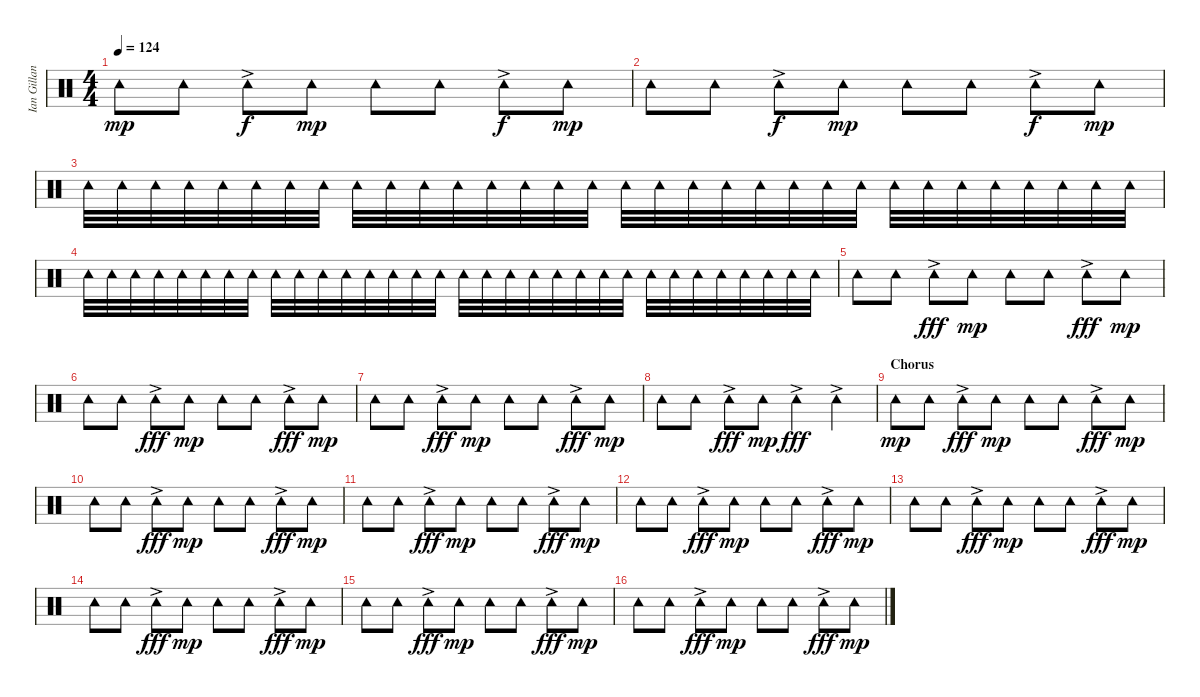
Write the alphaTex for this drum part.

\track ("Ian Gillan (percussions)" "Ian Gillan") {instrument percussion}
\staff {score}
\articulation defaults
\ts (4 4)
\tempo 124
\clef neutral
\ks c "Tambourine (hit)".8{dy mp} "Tambourine (hit)".8 "Tambourine (hit)"{ac}.8{dy f} "Tambourine (hit)".8{dy mp} "Tambourine (hit)".8 "Tambourine (hit)".8 "Tambourine (hit)"{ac}.8{dy f} "Tambourine (hit)".8{dy mp}
|
"Tambourine (hit)".8 "Tambourine (hit)".8 "Tambourine (hit)"{ac}.8{dy f} "Tambourine (hit)".8{dy mp} "Tambourine (hit)".8 "Tambourine (hit)".8 "Tambourine (hit)"{ac}.8{dy f} "Tambourine (hit)".8{dy mp} |
"Tambourine (hit)".32 "Tambourine (hit)".32 "Tambourine (hit)".32 "Tambourine (hit)".32 "Tambourine (hit)".32 "Tambourine (hit)".32 "Tambourine (hit)".32 "Tambourine (hit)".32 "Tambourine (hit)".32 "Tambourine (hit)".32 "Tambourine (hit)".32 "Tambourine (hit)".32 "Tambourine (hit)".32 "Tambourine (hit)".32 "Tambourine (hit)".32 "Tambourine (hit)".32 "Tambourine (hit)".32 "Tambourine (hit)".32 "Tambourine (hit)".32 "Tambourine (hit)".32 "Tambourine (hit)".32 "Tambourine (hit)".32 "Tambourine (hit)".32 "Tambourine (hit)".32 "Tambourine (hit)".32 "Tambourine (hit)".32 "Tambourine (hit)".32 "Tambourine (hit)".32 "Tambourine (hit)".32 "Tambourine (hit)".32 "Tambourine (hit)".32 "Tambourine (hit)".32 |
"Tambourine (hit)".32 "Tambourine (hit)".32 "Tambourine (hit)".32 "Tambourine (hit)".32 "Tambourine (hit)".32 "Tambourine (hit)".32 "Tambourine (hit)".32 "Tambourine (hit)".32 "Tambourine (hit)".32 "Tambourine (hit)".32 "Tambourine (hit)".32 "Tambourine (hit)".32 "Tambourine (hit)".32 "Tambourine (hit)".32 "Tambourine (hit)".32 "Tambourine (hit)".32 "Tambourine (hit)".32 "Tambourine (hit)".32 "Tambourine (hit)".32 "Tambourine (hit)".32 "Tambourine (hit)".32 "Tambourine (hit)".32 "Tambourine (hit)".32 "Tambourine (hit)".32 "Tambourine (hit)".32 "Tambourine (hit)".32 "Tambourine (hit)".32 "Tambourine (hit)".32 "Tambourine (hit)".32 "Tambourine (hit)".32 "Tambourine (hit)".32 "Tambourine (hit)".32 |
"Tambourine (hit)".8 "Tambourine (hit)".8 "Tambourine (hit)"{ac}.8{dy fff} "Tambourine (hit)".8{dy mp} "Tambourine (hit)".8 "Tambourine (hit)".8 "Tambourine (hit)"{ac}.8{dy fff} "Tambourine (hit)".8{dy mp} |
"Tambourine (hit)".8 "Tambourine (hit)".8 "Tambourine (hit)"{ac}.8{dy fff} "Tambourine (hit)".8{dy mp} "Tambourine (hit)".8 "Tambourine (hit)".8 "Tambourine (hit)"{ac}.8{dy fff} "Tambourine (hit)".8{dy mp} |
"Tambourine (hit)".8 "Tambourine (hit)".8 "Tambourine (hit)"{ac}.8{dy fff} "Tambourine (hit)".8{dy mp} "Tambourine (hit)".8 "Tambourine (hit)".8 "Tambourine (hit)"{ac}.8{dy fff} "Tambourine (hit)".8{dy mp} |
"Tambourine (hit)".8 "Tambourine (hit)".8 "Tambourine (hit)"{ac}.8{dy fff} "Tambourine (hit)".8{dy mp} "Tambourine (hit)"{ac}.4{dy fff} "Tambourine (hit)"{ac}.4 |
\section ("" "Chorus")
"Tambourine (hit)".8{dy mp} "Tambourine (hit)".8 "Tambourine (hit)"{ac}.8{dy fff} "Tambourine (hit)".8{dy mp} "Tambourine (hit)".8 "Tambourine (hit)".8 "Tambourine (hit)"{ac}.8{dy fff} "Tambourine (hit)".8{dy mp} |
"Tambourine (hit)".8 "Tambourine (hit)".8 "Tambourine (hit)"{ac}.8{dy fff} "Tambourine (hit)".8{dy mp} "Tambourine (hit)".8 "Tambourine (hit)".8 "Tambourine (hit)"{ac}.8{dy fff} "Tambourine (hit)".8{dy mp} |
"Tambourine (hit)".8 "Tambourine (hit)".8 "Tambourine (hit)"{ac}.8{dy fff} "Tambourine (hit)".8{dy mp} "Tambourine (hit)".8 "Tambourine (hit)".8 "Tambourine (hit)"{ac}.8{dy fff} "Tambourine (hit)".8{dy mp} |
"Tambourine (hit)".8 "Tambourine (hit)".8 "Tambourine (hit)"{ac}.8{dy fff} "Tambourine (hit)".8{dy mp} "Tambourine (hit)".8 "Tambourine (hit)".8 "Tambourine (hit)"{ac}.8{dy fff} "Tambourine (hit)".8{dy mp} |
"Tambourine (hit)".8 "Tambourine (hit)".8 "Tambourine (hit)"{ac}.8{dy fff} "Tambourine (hit)".8{dy mp} "Tambourine (hit)".8 "Tambourine (hit)".8 "Tambourine (hit)"{ac}.8{dy fff} "Tambourine (hit)".8{dy mp} |
"Tambourine (hit)".8 "Tambourine (hit)".8 "Tambourine (hit)"{ac}.8{dy fff} "Tambourine (hit)".8{dy mp} "Tambourine (hit)".8 "Tambourine (hit)".8 "Tambourine (hit)"{ac}.8{dy fff} "Tambourine (hit)".8{dy mp} |
"Tambourine (hit)".8 "Tambourine (hit)".8 "Tambourine (hit)"{ac}.8{dy fff} "Tambourine (hit)".8{dy mp} "Tambourine (hit)".8 "Tambourine (hit)".8 "Tambourine (hit)"{ac}.8{dy fff} "Tambourine (hit)".8{dy mp} |
"Tambourine (hit)".8 "Tambourine (hit)".8 "Tambourine (hit)"{ac}.8{dy fff} "Tambourine (hit)".8{dy mp} "Tambourine (hit)".8 "Tambourine (hit)".8 "Tambourine (hit)"{ac}.8{dy fff} "Tambourine (hit)".8{dy mp}
